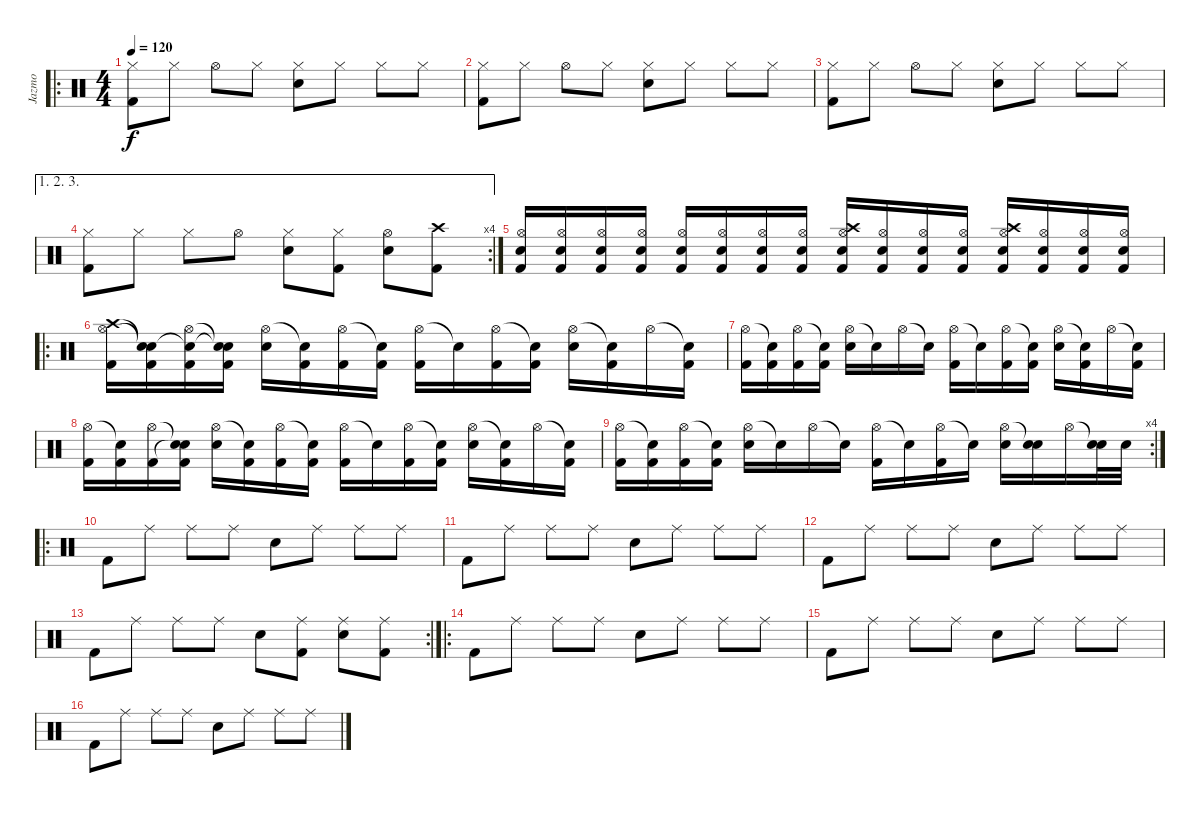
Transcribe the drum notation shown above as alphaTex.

\track ("Jazmo" "Jazmo") {instrument percussion}
\staff {score}
\articulation defaults
\ro
\ts (4 4)
\tempo 120
\clef neutral
\ks c
("Hi-Hat (closed)" "Kick (hit) 2").8{dy f} "Hi-Hat (closed)".8 "Hi-Hat (open)".8 "Hi-Hat (closed)".8 ("Hi-Hat (closed)" "Snare (hit) 2").8 "Hi-Hat (closed)".8 "Hi-Hat (closed)".8 "Hi-Hat (closed)".8 |
("Hi-Hat (closed)" "Kick (hit) 2").8 "Hi-Hat (closed)".8 "Hi-Hat (open)".8 "Hi-Hat (closed)".8 ("Hi-Hat (closed)" "Snare (hit) 2").8 "Hi-Hat (closed)".8 "Hi-Hat (closed)".8 "Hi-Hat (closed)".8 |
("Hi-Hat (closed)" "Kick (hit) 2").8 "Hi-Hat (closed)".8 "Hi-Hat (open)".8 "Hi-Hat (closed)".8 ("Hi-Hat (closed)" "Snare (hit) 2").8 "Hi-Hat (closed)".8 "Hi-Hat (closed)".8 "Hi-Hat (closed)".8 |
\ae (1 2 3)
\rc 4
("Hi-Hat (closed)" "Kick (hit) 2").8 "Hi-Hat (closed)".8 "Hi-Hat (closed)".8 "Hi-Hat (open)".8 ("Hi-Hat (closed)" "Snare (hit) 2").8 ("Hi-Hat (closed)" "Kick (hit) 2").8 ("Hi-Hat (open)" "Snare (hit) 2").8 ("Crash high (hit)" "Kick (hit) 2").8 |
("Hi-Hat (open)" "Kick (hit) 2" "Electric Snare (hit)").16 ("Hi-Hat (open)" "Kick (hit) 2" "Electric Snare (hit)").16 ("Hi-Hat (open)" "Kick (hit) 2" "Electric Snare (hit)").16 ("Hi-Hat (open)" "Kick (hit) 2" "Electric Snare (hit)").16 ("Hi-Hat (open)" "Kick (hit) 2" "Electric Snare (hit)").16 ("Hi-Hat (open)" "Kick (hit) 2" "Electric Snare (hit)").16 ("Hi-Hat (open)" "Kick (hit) 2" "Electric Snare (hit)").16 ("Hi-Hat (open)" "Kick (hit) 2" "Electric Snare (hit)").16 ("Crash high (hit)" "Hi-Hat (open)" "Kick (hit) 2" "Electric Snare (hit)").16 ("Hi-Hat (open)" "Kick (hit) 2" "Electric Snare (hit)").16 ("Hi-Hat (open)" "Kick (hit) 2" "Electric Snare (hit)").16 ("Hi-Hat (open)" "Kick (hit) 2" "Electric Snare (hit)").16 ("Crash high (hit)" "Hi-Hat (open)" "Kick (hit) 2" "Electric Snare (hit)").16 ("Hi-Hat (open)" "Kick (hit) 2" "Electric Snare (hit)").16 ("Hi-Hat (open)" "Kick (hit) 2" "Electric Snare (hit)").16 ("Hi-Hat (open)" "Kick (hit) 2" "Electric Snare (hit)").16 |
\ro
("Crash high (hit)" "Hi-Hat (open)" "Kick (hit) 2").16 ("Snare (hit)"{t} "Snare (hit)"{t} "Kick (hit) 2").16 ("Snare (hit)"{t} "Hi-Hat (open)" "Kick (hit) 2").16 ("Snare (hit)"{t} "Snare (hit)"{t} "Kick (hit) 2").16 ("Hi-Hat (open)" "Electric Snare (hit)").16 ("Snare (hit)"{t} "Kick (hit) 2").16 ("Hi-Hat (open)" "Kick (hit) 2").16 ("Snare (hit)"{t} "Kick (hit) 2").16 ("Hi-Hat (open)" "Kick (hit) 2").16 "Snare (hit)"{t}.16 ("Hi-Hat (open)" "Kick (hit) 2").16 ("Snare (hit)"{t} "Kick (hit) 2").16 ("Hi-Hat (open)" "Electric Snare (hit)").16 ("Snare (hit)"{t} "Kick (hit) 2").16 "Hi-Hat (open)".16 ("Snare (hit)"{t} "Kick (hit) 2").16 |
("Hi-Hat (open)" "Kick (hit) 2").16 ("Snare (hit)"{t} "Kick (hit) 2").16 ("Hi-Hat (open)" "Kick (hit) 2").16 ("Snare (hit)"{t} "Kick (hit) 2").16 ("Hi-Hat (open)" "Electric Snare (hit)").16 "Snare (hit)"{t}.16 "Hi-Hat (open)".16 "Snare (hit)"{t}.16 ("Hi-Hat (open)" "Kick (hit) 2").16 "Snare (hit)"{t}.16 ("Hi-Hat (open)" "Kick (hit) 2").16 ("Snare (hit)"{t} "Kick (hit) 2").16 ("Hi-Hat (open)" "Electric Snare (hit)").16 ("Snare (hit)"{t} "Kick (hit) 2").16 "Hi-Hat (open)".16 ("Snare (hit)"{t} "Kick (hit) 2").16 |
("Hi-Hat (open)" "Kick (hit) 2").16 ("Snare (hit)"{t} "Kick (hit) 2").16 ("Hi-Hat (open)" "Kick (hit) 2").16 ("Snare (hit)"{t} "Snare (hit)"{t} "Kick (hit) 2").16 ("Hi-Hat (open)" "Electric Snare (hit)").16 ("Snare (hit)"{t} "Kick (hit) 2").16 ("Hi-Hat (open)" "Kick (hit) 2").16 ("Snare (hit)"{t} "Kick (hit) 2").16 ("Hi-Hat (open)" "Kick (hit) 2").16 "Snare (hit)"{t}.16 ("Hi-Hat (open)" "Kick (hit) 2").16 ("Snare (hit)"{t} "Kick (hit) 2").16 ("Hi-Hat (open)" "Electric Snare (hit)").16 ("Snare (hit)"{t} "Kick (hit) 2").16 "Hi-Hat (open)".16 ("Snare (hit)"{t} "Kick (hit) 2").16 |
\rc 4
("Hi-Hat (open)" "Kick (hit) 2").16 ("Snare (hit)"{t} "Kick (hit) 2").16 ("Hi-Hat (open)" "Kick (hit) 2").16 ("Snare (hit)"{t} "Kick (hit) 2").16 ("Hi-Hat (open)" "Electric Snare (hit)").16 "Snare (hit)"{t}.16 "Hi-Hat (open)".16 "Snare (hit)"{t}.16 ("Hi-Hat (open)" "Kick (hit) 2").16 "Snare (hit)"{t}.16 ("Hi-Hat (open)" "Kick (hit) 2").16 "Snare (hit)"{t}.16 ("Hi-Hat (open)" "Electric Snare (hit)").16 ("Snare (hit)"{t} "Electric Snare (hit)").16 "Hi-Hat (open)".16 ("Snare (hit)"{t} "Electric Snare (hit)").32 "Electric Snare (hit)".32 |
\ro "Kick (hit) 2".8 "Ride (middle)".8 "Ride (middle)".8 "Ride (middle)".8 "Snare (hit) 2".8 "Ride (middle)".8 "Ride (middle)".8 "Ride (middle)".8
|
"Kick (hit) 2".8 "Ride (middle)".8 "Ride (middle)".8 "Ride (middle)".8 "Snare (hit) 2".8 "Ride (middle)".8 "Ride (middle)".8 "Ride (middle)".8 |
"Kick (hit) 2".8 "Ride (middle)".8 "Ride (middle)".8 "Ride (middle)".8 "Snare (hit) 2".8 "Ride (middle)".8 "Ride (middle)".8 "Ride (middle)".8 |
\rc 2 "Kick (hit) 2".8 "Ride (middle)".8 "Ride (middle)".8 "Ride (middle)".8 "Snare (hit) 2".8
("Ride (middle)" "Kick (hit) 2").8 ("Ride (middle)" "Snare (hit) 2").8 ("Ride (middle)" "Kick (hit) 2").8 |
\ro "Kick (hit) 2".8 "Ride (middle)".8 "Ride (middle)".8 "Ride (middle)".8 "Snare (hit) 2".8 "Ride (middle)".8 "Ride (middle)".8 "Ride (middle)".8
|
"Kick (hit) 2".8 "Ride (middle)".8 "Ride (middle)".8 "Ride (middle)".8 "Snare (hit) 2".8 "Ride (middle)".8 "Ride (middle)".8 "Ride (middle)".8 |
"Kick (hit) 2".8 "Ride (middle)".8 "Ride (middle)".8 "Ride (middle)".8 "Snare (hit) 2".8 "Ride (middle)".8 "Ride (middle)".8 "Ride (middle)".8
